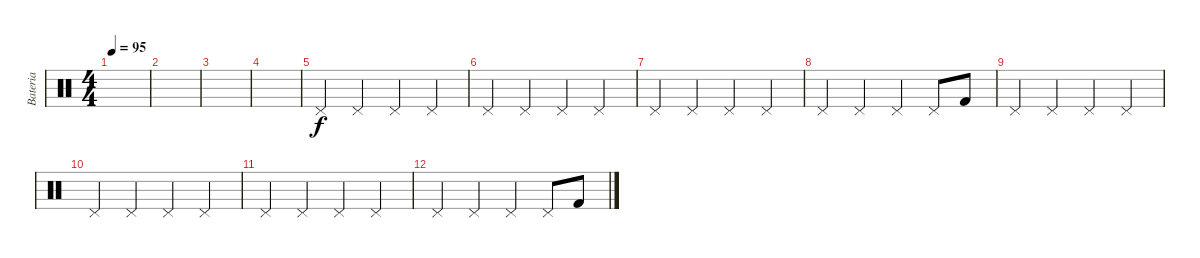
\track ("Bateria" "Bateria") {instrument percussion}
\staff {score}
\articulation defaults
\ts (4 4)
\tempo 95
\clef neutral
\ks c
|
|
|
|
"Pedal Hi-Hat (hit)".4 "Pedal Hi-Hat (hit)".4 "Pedal Hi-Hat (hit)".4 "Pedal Hi-Hat (hit)".4 |
"Pedal Hi-Hat (hit)".4 "Pedal Hi-Hat (hit)".4 "Pedal Hi-Hat (hit)".4 "Pedal Hi-Hat (hit)".4 |
"Pedal Hi-Hat (hit)".4 "Pedal Hi-Hat (hit)".4 "Pedal Hi-Hat (hit)".4 "Pedal Hi-Hat (hit)".4 |
"Pedal Hi-Hat (hit)".4 "Pedal Hi-Hat (hit)".4 "Pedal Hi-Hat (hit)".4 "Pedal Hi-Hat (hit)".8 "Kick (hit) 2".8 |
"Pedal Hi-Hat (hit)".4 "Pedal Hi-Hat (hit)".4 "Pedal Hi-Hat (hit)".4 "Pedal Hi-Hat (hit)".4 |
"Pedal Hi-Hat (hit)".4 "Pedal Hi-Hat (hit)".4 "Pedal Hi-Hat (hit)".4 "Pedal Hi-Hat (hit)".4 |
"Pedal Hi-Hat (hit)".4 "Pedal Hi-Hat (hit)".4 "Pedal Hi-Hat (hit)".4 "Pedal Hi-Hat (hit)".4 |
"Pedal Hi-Hat (hit)".4 "Pedal Hi-Hat (hit)".4 "Pedal Hi-Hat (hit)".4 "Pedal Hi-Hat (hit)".8 "Kick (hit) 2".8
